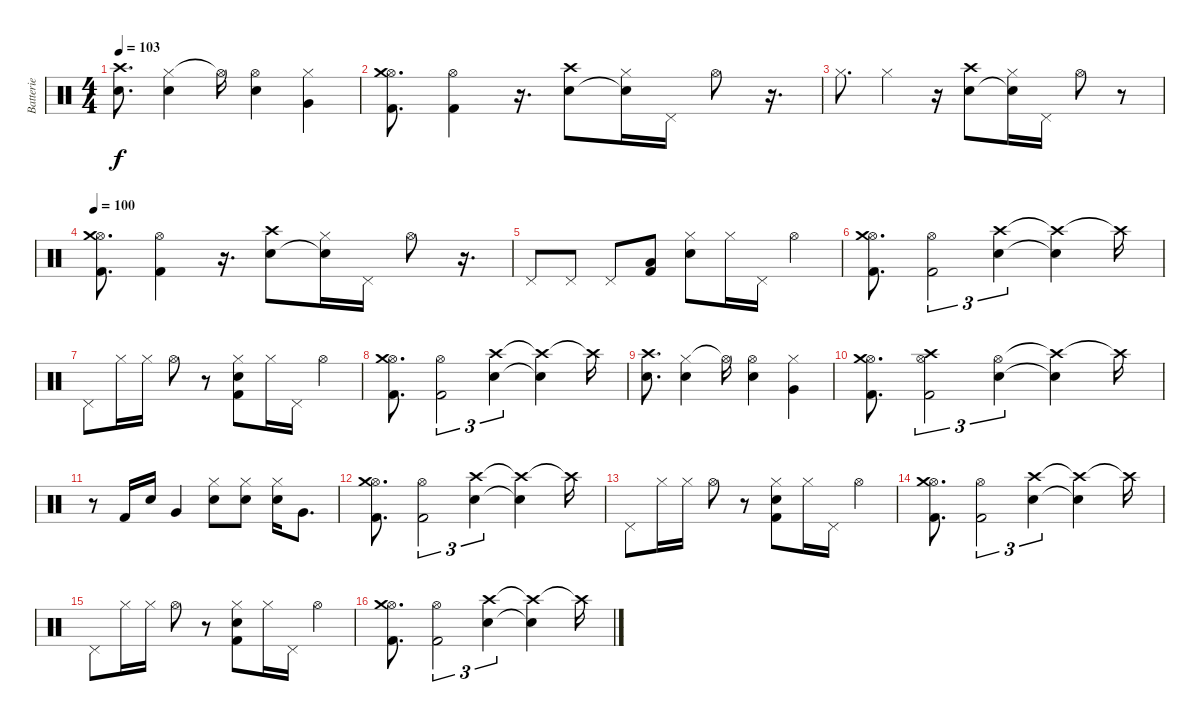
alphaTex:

\track ("Batterie" "Batterie") {instrument percussion}
\staff {score}
\articulation defaults
\ts (4 4)
\tempo 103
\clef neutral
\ks c
("Crash high (hit)" "Electric Snare (hit)").8{d dy f} ("Hi-Hat (closed)" "Electric Snare (hit)").4 "Hi-Hat (open)"{t}.16 ("Hi-Hat (open)" "Electric Snare (hit)").4 ("Hi-Hat (closed)" "Very Low Tom (hit)").4 |
("Hi-Hat (open)" "Crash medium (hit)" "Kick (hit) 2").8{d} ("Hi-Hat (open)" "Kick (hit) 2").4 r.16{d} ("Crash high (hit)" "Electric Snare (hit)").8 ("Hi-Hat (closed)" "Electric Snare (hit)"{t}).16 "Pedal Hi-Hat (hit)".16 "Hi-Hat (open)".8 r.16{d} |
"Hi-Hat (closed)".8{d} "Hi-Hat (closed)".4 r.16 ("Crash high (hit)" "Electric Snare (hit)").8 ("Hi-Hat (closed)" "Electric Snare (hit)"{t}).16 "Pedal Hi-Hat (hit)".16 "Hi-Hat (open)".8 r.8 |
\tempo 100
("Hi-Hat (open)" "Crash medium (hit)" "Kick (hit) 2").8{d} ("Hi-Hat (open)" "Kick (hit) 2").4 r.16{d} ("Crash high (hit)" "Electric Snare (hit)").8 ("Hi-Hat (closed)" "Electric Snare (hit)"{t}).16 "Pedal Hi-Hat (hit)".16 "Hi-Hat (open)".8 r.16{d} |
"Pedal Hi-Hat (hit)".8 "Pedal Hi-Hat (hit)".8 "Pedal Hi-Hat (hit)".8 ("Low Tom (hit)" "Kick (hit) 2").8 ("Hi-Hat (closed)" "Electric Snare (hit)").8 "Hi-Hat (closed)".16 "Pedal Hi-Hat (hit)".16 "Hi-Hat (open)".4 |
("Hi-Hat (open)" "Crash medium (hit)" "Kick (hit) 2").8{d} ("Hi-Hat (open)" "Kick (hit) 2").2{tu (3 2)} ("Crash high (hit)" "Electric Snare (hit)").4{tu (3 2)} ("Crash high (hit)"{t} "Electric Snare (hit)"{t}).4 "Crash high (hit)"{t}.16 |
"Pedal Hi-Hat (hit)".8 "Hi-Hat (closed)".16 "Hi-Hat (closed)".16 "Hi-Hat (open)".8 r.8 ("Hi-Hat (closed)" "Electric Snare (hit)" "Kick (hit) 2").8 "Hi-Hat (closed)".16 "Pedal Hi-Hat (hit)".16 "Hi-Hat (open)".4 |
("Hi-Hat (open)" "Crash medium (hit)" "Kick (hit) 2").8{d} ("Hi-Hat (open)" "Kick (hit) 2").2{tu (3 2)} ("Crash high (hit)" "Electric Snare (hit)").4{tu (3 2)} ("Crash high (hit)"{t} "Electric Snare (hit)"{t}).4 "Crash high (hit)"{t}.16 |
("Crash high (hit)" "Snare (hit) 2").8{d} ("Hi-Hat (closed)" "Snare (hit) 2").4 "Hi-Hat (open)"{t}.16 ("Hi-Hat (open)" "Snare (hit) 2").4 ("Hi-Hat (closed)" "Very Low Tom (hit)").4 |
("Hi-Hat (open)" "Crash medium (hit)" "Kick (hit) 2").8{d} ("Hi-Hat (open)" "Crash high (hit)" "Kick (hit) 2").2{tu (3 2)} ("Hi-Hat (open)" "Electric Snare (hit)").4{tu (3 2)} ("Crash high (hit)"{t} "Electric Snare (hit)"{t}).4 "Crash high (hit)"{t}.16 |
r.8 "Kick (hit) 2".16 "Electric Snare (hit)".16 "Very Low Tom (hit)".4 ("Hi-Hat (closed)" "Electric Snare (hit)").8 ("Hi-Hat (closed)" "Electric Snare (hit)").8 ("Hi-Hat (closed)" "Electric Snare (hit)").16 "Very Low Tom (hit)".8{d} |
("Hi-Hat (open)" "Crash medium (hit)" "Kick (hit) 2").8{d} ("Hi-Hat (open)" "Kick (hit) 2").2{tu (3 2)} ("Crash high (hit)" "Electric Snare (hit)").4{tu (3 2)} ("Crash high (hit)"{t} "Electric Snare (hit)"{t}).4 "Crash high (hit)"{t}.16 |
"Pedal Hi-Hat (hit)".8 "Hi-Hat (closed)".16 "Hi-Hat (closed)".16 "Hi-Hat (open)".8 r.8 ("Hi-Hat (closed)" "Electric Snare (hit)" "Kick (hit) 2").8 "Hi-Hat (closed)".16 "Pedal Hi-Hat (hit)".16 "Hi-Hat (open)".4 |
("Hi-Hat (open)" "Crash medium (hit)" "Kick (hit) 2").8{d} ("Hi-Hat (open)" "Kick (hit) 2").2{tu (3 2)} ("Crash high (hit)" "Electric Snare (hit)").4{tu (3 2)} ("Crash high (hit)"{t} "Electric Snare (hit)"{t}).4 "Crash high (hit)"{t}.16 |
"Pedal Hi-Hat (hit)".8 "Hi-Hat (closed)".16 "Hi-Hat (closed)".16 "Hi-Hat (open)".8 r.8 ("Hi-Hat (closed)" "Electric Snare (hit)" "Kick (hit) 2").8 "Hi-Hat (closed)".16 "Pedal Hi-Hat (hit)".16 "Hi-Hat (open)".4 |
("Hi-Hat (open)" "Crash medium (hit)" "Kick (hit) 2").8{d} ("Hi-Hat (open)" "Kick (hit) 2").2{tu (3 2)} ("Crash high (hit)" "Electric Snare (hit)").4{tu (3 2)} ("Crash high (hit)"{t} "Electric Snare (hit)"{t}).4 "Crash high (hit)"{t}.16
